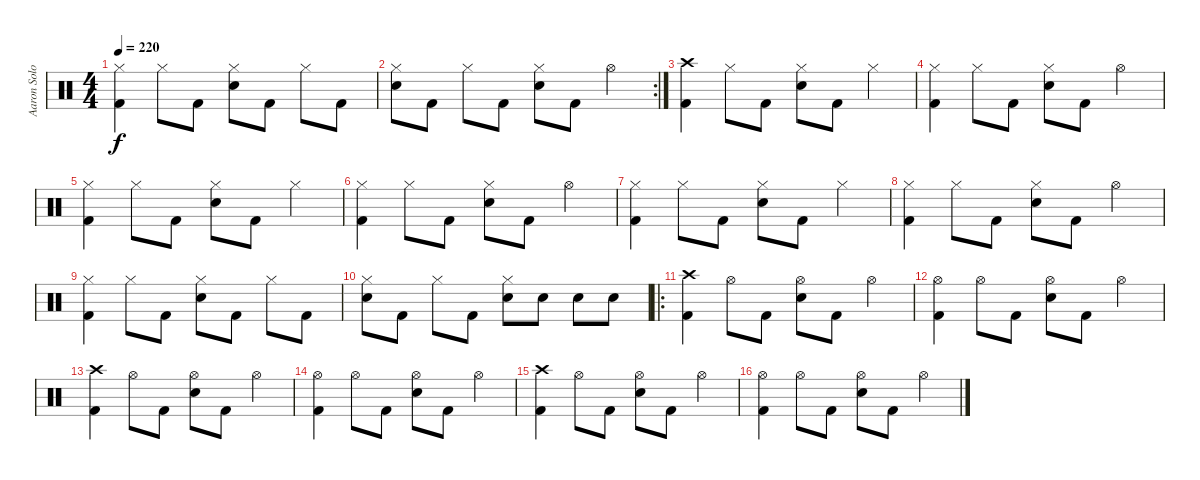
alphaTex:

\track ("Aaron Solowoniuk" "Aaron Solo") {instrument percussion}
\staff {score}
\articulation defaults
\ts (4 4)
\tempo 220
\clef neutral
\ks c
("Hi-Hat (closed)" "Kick (hit) 2").4{dy f} "Hi-Hat (closed)".8 "Kick (hit) 2".8 ("Hi-Hat (closed)" "Snare (hit) 2").8 "Kick (hit) 2".8 "Hi-Hat (closed)".8 "Kick (hit) 2".8 |
\rc 2
("Hi-Hat (closed)" "Snare (hit) 2").8 "Kick (hit) 2".8 "Hi-Hat (closed)".8 "Kick (hit) 2".8 ("Hi-Hat (closed)" "Snare (hit) 2").8 "Kick (hit) 2".8 "Hi-Hat (open)".4 |
("Crash high (hit)" "Kick (hit) 2").4 "Hi-Hat (closed)".8 "Kick (hit) 2".8 ("Hi-Hat (closed)" "Snare (hit) 2").8 "Kick (hit) 2".8 "Hi-Hat (closed)".4 |
("Hi-Hat (closed)" "Kick (hit) 2").4 "Hi-Hat (closed)".8 "Kick (hit) 2".8 ("Hi-Hat (closed)" "Snare (hit) 2").8 "Kick (hit) 2".8 "Hi-Hat (open)".4 |
("Hi-Hat (closed)" "Kick (hit) 2").4 "Hi-Hat (closed)".8 "Kick (hit) 2".8 ("Hi-Hat (closed)" "Snare (hit) 2").8 "Kick (hit) 2".8 "Hi-Hat (closed)".4 |
("Hi-Hat (closed)" "Kick (hit) 2").4 "Hi-Hat (closed)".8 "Kick (hit) 2".8 ("Hi-Hat (closed)" "Snare (hit) 2").8 "Kick (hit) 2".8 "Hi-Hat (open)".4 |
("Hi-Hat (closed)" "Kick (hit) 2").4 "Hi-Hat (closed)".8 "Kick (hit) 2".8 ("Hi-Hat (closed)" "Snare (hit) 2").8 "Kick (hit) 2".8 "Hi-Hat (closed)".4 |
("Hi-Hat (closed)" "Kick (hit) 2").4 "Hi-Hat (closed)".8 "Kick (hit) 2".8 ("Hi-Hat (closed)" "Snare (hit) 2").8 "Kick (hit) 2".8 "Hi-Hat (open)".4 |
("Hi-Hat (closed)" "Kick (hit) 2").4 "Hi-Hat (closed)".8 "Kick (hit) 2".8 ("Hi-Hat (closed)" "Snare (hit) 2").8 "Kick (hit) 2".8 "Hi-Hat (closed)".8 "Kick (hit) 2".8 |
("Hi-Hat (closed)" "Snare (hit) 2").8 "Kick (hit) 2".8 "Hi-Hat (closed)".8 "Kick (hit) 2".8 ("Hi-Hat (closed)" "Snare (hit) 2").8 "Snare (hit) 2".8 "Snare (hit) 2".8 "Snare (hit) 2".8 |
\ro
("Crash high (hit)" "Kick (hit) 2").4 "Hi-Hat (open)".8 "Kick (hit) 2".8 ("Hi-Hat (open)" "Snare (hit) 2").8 "Kick (hit) 2".8 "Hi-Hat (open)".4 |
("Hi-Hat (open)" "Kick (hit) 2").4 "Hi-Hat (open)".8 "Kick (hit) 2".8 ("Hi-Hat (open)" "Snare (hit) 2").8 "Kick (hit) 2".8 "Hi-Hat (open)".4 |
("Crash high (hit)" "Kick (hit) 2").4 "Hi-Hat (open)".8 "Kick (hit) 2".8 ("Hi-Hat (open)" "Snare (hit) 2").8 "Kick (hit) 2".8 "Hi-Hat (open)".4 |
("Hi-Hat (open)" "Kick (hit) 2").4 "Hi-Hat (open)".8 "Kick (hit) 2".8 ("Hi-Hat (open)" "Snare (hit) 2").8 "Kick (hit) 2".8 "Hi-Hat (open)".4 |
("Crash high (hit)" "Kick (hit) 2").4 "Hi-Hat (open)".8 "Kick (hit) 2".8 ("Hi-Hat (open)" "Snare (hit) 2").8 "Kick (hit) 2".8 "Hi-Hat (open)".4 |
("Hi-Hat (open)" "Kick (hit) 2").4 "Hi-Hat (open)".8 "Kick (hit) 2".8 ("Hi-Hat (open)" "Snare (hit) 2").8 "Kick (hit) 2".8 "Hi-Hat (open)".4
